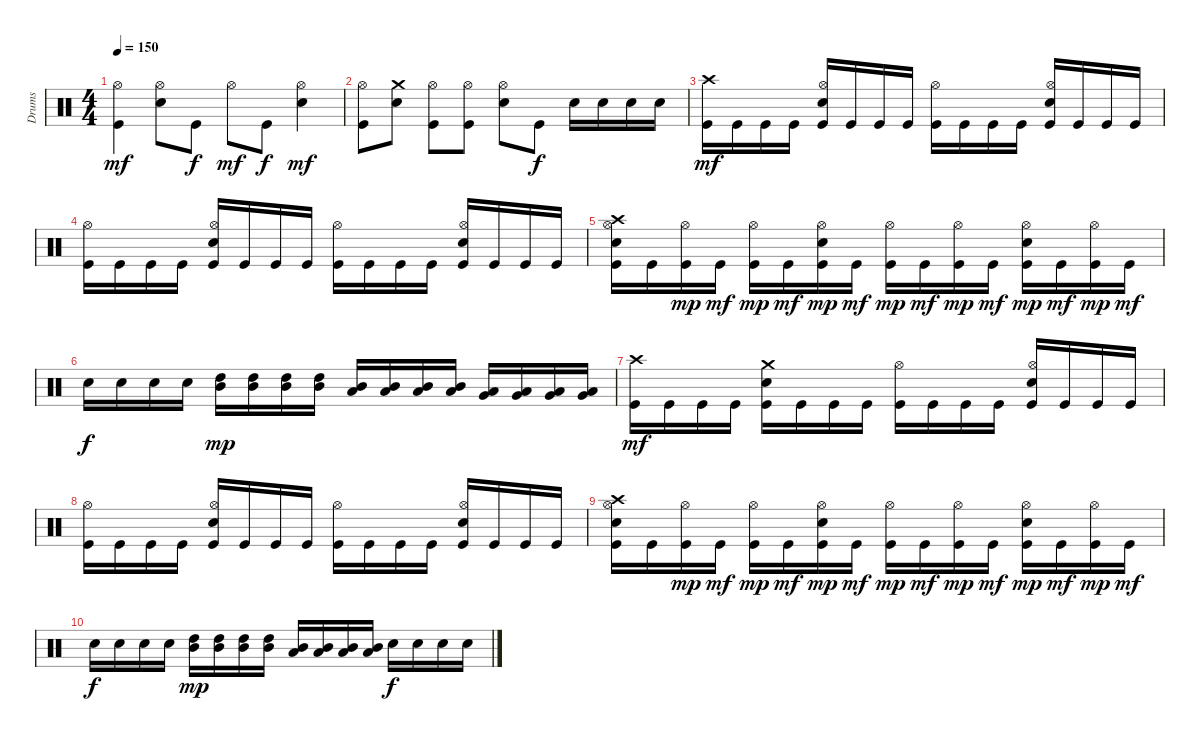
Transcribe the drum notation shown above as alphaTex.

\track ("Drums" "Drums") {instrument percussion}
\staff {score}
\articulation defaults
\ts (4 4)
\tempo 150
\clef neutral
\ks c
("Kick (hit)" "Hi-Hat (open)").4{dy mf} ("Electric Snare (hit)" "Hi-Hat (open)").8 "Kick (hit)".8{dy f} "Hi-Hat (open)".8{dy mf} "Kick (hit)".8{dy f} ("Electric Snare (hit)" "Hi-Hat (open)").4{dy mf} |
("Kick (hit)" "Hi-Hat (open)").8 ("Electric Snare (hit)" "Crash medium (hit)").8 ("Kick (hit)" "Hi-Hat (open)").8 ("Kick (hit)" "Hi-Hat (open)").8 ("Electric Snare (hit)" "Hi-Hat (open)").8 "Kick (hit)".8{dy f} "Electric Snare (hit)".16 "Electric Snare (hit)".16 "Electric Snare (hit)".16 "Electric Snare (hit)".16 |
("Kick (hit)" "Crash high (hit)").16{dy mf} "Kick (hit)".16 "Kick (hit)".16 "Kick (hit)".16 ("Kick (hit)" "Electric Snare (hit)" "Hi-Hat (open)").16 "Kick (hit)".16 "Kick (hit)".16 "Kick (hit)".16 ("Kick (hit)" "Hi-Hat (open)").16 "Kick (hit)".16 "Kick (hit)".16 "Kick (hit)".16 ("Kick (hit)" "Electric Snare (hit)" "Hi-Hat (open)").16 "Kick (hit)".16 "Kick (hit)".16 "Kick (hit)".16 |
("Kick (hit)" "Hi-Hat (open)").16 "Kick (hit)".16 "Kick (hit)".16 "Kick (hit)".16 ("Kick (hit)" "Electric Snare (hit)" "Hi-Hat (open)").16 "Kick (hit)".16 "Kick (hit)".16 "Kick (hit)".16 ("Kick (hit)" "Hi-Hat (open)").16 "Kick (hit)".16 "Kick (hit)".16 "Kick (hit)".16 ("Kick (hit)" "Electric Snare (hit)" "Hi-Hat (open)").16 "Kick (hit)".16 "Kick (hit)".16 "Kick (hit)".16 |
("Kick (hit)" "Electric Snare (hit)" "Hi-Hat (open)" "Crash high (hit)").16 "Kick (hit)".16 ("Kick (hit)" "Hi-Hat (open)").16{dy mp} "Kick (hit)".16{dy mf} ("Kick (hit)" "Hi-Hat (open)").16{dy mp} "Kick (hit)".16{dy mf} ("Kick (hit)" "Electric Snare (hit)" "Hi-Hat (open)").16{dy mp} "Kick (hit)".16{dy mf} ("Kick (hit)" "Hi-Hat (open)").16{dy mp} "Kick (hit)".16{dy mf} ("Kick (hit)" "Hi-Hat (open)").16{dy mp} "Kick (hit)".16{dy mf} ("Kick (hit)" "Electric Snare (hit)" "Hi-Hat (open)").16{dy mp} "Kick (hit)".16{dy mf} ("Kick (hit)" "Hi-Hat (open)").16{dy mp} "Kick (hit)".16{dy mf} |
"Electric Snare (hit)".16{dy f} "Electric Snare (hit)".16 "Electric Snare (hit)".16 "Electric Snare (hit)".16 ("High Tom (hit)" "Mid Tom (hit)").16{dy mp} ("High Tom (hit)" "Mid Tom (hit)").16 ("High Tom (hit)" "Mid Tom (hit)").16 ("High Tom (hit)" "Mid Tom (hit)").16 ("Mid Tom (hit)" "Low Tom (hit)").16 ("Mid Tom (hit)" "Low Tom (hit)").16 ("Mid Tom (hit)" "Low Tom (hit)").16 ("Mid Tom (hit)" "Low Tom (hit)").16 ("Low Tom (hit)" "Very Low Tom (hit)").16 ("Low Tom (hit)" "Very Low Tom (hit)").16 ("Low Tom (hit)" "Very Low Tom (hit)").16 ("Low Tom (hit)" "Very Low Tom (hit)").16 |
("Kick (hit)" "Crash high (hit)").16{dy mf} "Kick (hit)".16 "Kick (hit)".16 "Kick (hit)".16 ("Kick (hit)" "Electric Snare (hit)" "Crash medium (hit)").16 "Kick (hit)".16 "Kick (hit)".16 "Kick (hit)".16 ("Kick (hit)" "Hi-Hat (open)").16 "Kick (hit)".16 "Kick (hit)".16 "Kick (hit)".16 ("Kick (hit)" "Electric Snare (hit)" "Hi-Hat (open)").16 "Kick (hit)".16 "Kick (hit)".16 "Kick (hit)".16 |
("Kick (hit)" "Hi-Hat (open)").16 "Kick (hit)".16 "Kick (hit)".16 "Kick (hit)".16 ("Kick (hit)" "Electric Snare (hit)" "Hi-Hat (open)").16 "Kick (hit)".16 "Kick (hit)".16 "Kick (hit)".16 ("Kick (hit)" "Hi-Hat (open)").16 "Kick (hit)".16 "Kick (hit)".16 "Kick (hit)".16 ("Kick (hit)" "Electric Snare (hit)" "Hi-Hat (open)").16 "Kick (hit)".16 "Kick (hit)".16 "Kick (hit)".16 |
("Kick (hit)" "Electric Snare (hit)" "Hi-Hat (open)" "Crash high (hit)").16 "Kick (hit)".16 ("Kick (hit)" "Hi-Hat (open)").16{dy mp} "Kick (hit)".16{dy mf} ("Kick (hit)" "Hi-Hat (open)").16{dy mp} "Kick (hit)".16{dy mf} ("Kick (hit)" "Electric Snare (hit)" "Hi-Hat (open)").16{dy mp} "Kick (hit)".16{dy mf} ("Kick (hit)" "Hi-Hat (open)").16{dy mp} "Kick (hit)".16{dy mf} ("Kick (hit)" "Hi-Hat (open)").16{dy mp} "Kick (hit)".16{dy mf} ("Kick (hit)" "Electric Snare (hit)" "Hi-Hat (open)").16{dy mp} "Kick (hit)".16{dy mf} ("Kick (hit)" "Hi-Hat (open)").16{dy mp} "Kick (hit)".16{dy mf} |
"Electric Snare (hit)".16{dy f} "Electric Snare (hit)".16 "Electric Snare (hit)".16 "Electric Snare (hit)".16 ("High Tom (hit)" "Mid Tom (hit)").16{dy mp} ("High Tom (hit)" "Mid Tom (hit)").16 ("High Tom (hit)" "Mid Tom (hit)").16 ("High Tom (hit)" "Mid Tom (hit)").16 ("Mid Tom (hit)" "Low Tom (hit)").16 ("Mid Tom (hit)" "Low Tom (hit)").16 ("Mid Tom (hit)" "Low Tom (hit)").16 ("Mid Tom (hit)" "Low Tom (hit)").16 "Electric Snare (hit)".16{dy f} "Electric Snare (hit)".16 "Electric Snare (hit)".16 "Electric Snare (hit)".16
